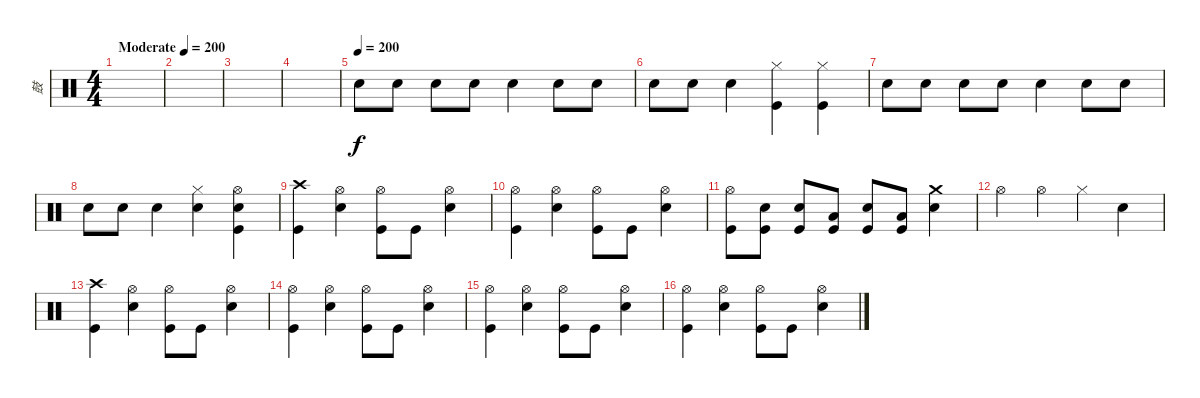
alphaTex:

\track ("鼓" "鼓") {instrument percussion}
\staff {score}
\articulation defaults
\ts (4 4)
\tempo (200 "Moderate")
\tempo 150
\tempo (200 "Moderate")
\clef neutral
\ks c
|
|
|
|
\tempo (200)
"Snare (hit) 2".8 "Snare (hit) 2".8 "Snare (hit) 2".8 "Snare (hit) 2".8 "Snare (hit) 2".4 "Snare (hit) 2".8 "Snare (hit) 2".8 |
"Snare (hit) 2".8 "Snare (hit) 2".8 "Snare (hit) 2".4 ("Hi-Hat (closed)" "Kick (hit)").4 ("Hi-Hat (closed)" "Kick (hit)").4 |
"Snare (hit) 2".8 "Snare (hit) 2".8 "Snare (hit) 2".8 "Snare (hit) 2".8 "Snare (hit) 2".4 "Snare (hit) 2".8 "Snare (hit) 2".8 |
"Snare (hit) 2".8 "Snare (hit) 2".8 "Snare (hit) 2".4 ("Hi-Hat (closed)" "Snare (hit) 2").4 ("Hi-Hat (open)" "Snare (hit) 2" "Kick (hit)").4 |
("Crash high (hit)" "Kick (hit)").4 ("Hi-Hat (open)" "Snare (hit) 2").4 ("Hi-Hat (open)" "Kick (hit)").8 "Kick (hit)".8 ("Hi-Hat (open)" "Snare (hit) 2").4 |
("Hi-Hat (open)" "Kick (hit)").4 ("Hi-Hat (open)" "Snare (hit) 2").4 ("Hi-Hat (open)" "Kick (hit)").8 "Kick (hit)".8 ("Hi-Hat (open)" "Snare (hit) 2").4 |
("Hi-Hat (open)" "Kick (hit)").8 ("Snare (hit) 2" "Kick (hit)").8 ("Snare (hit) 2" "Kick (hit)").8 ("Low Floor Tom (hit)" "Kick (hit)").8 ("Snare (hit) 2" "Kick (hit)").8 ("Low Tom (hit)" "Kick (hit)").8 ("Crash medium (hit)" "Snare (hit) 2").4 |
"Hi-Hat (open)".4 "Hi-Hat (open)".4 "Hi-Hat (closed)".4 "Snare (hit) 2".4 |
("Crash high (hit)" "Kick (hit)").4 ("Hi-Hat (open)" "Snare (hit) 2").4 ("Hi-Hat (open)" "Kick (hit)").8 "Kick (hit)".8 ("Hi-Hat (open)" "Snare (hit) 2").4 |
("Hi-Hat (open)" "Kick (hit)").4 ("Hi-Hat (open)" "Snare (hit) 2").4 ("Hi-Hat (open)" "Kick (hit)").8 "Kick (hit)".8 ("Hi-Hat (open)" "Snare (hit) 2").4 |
("Hi-Hat (open)" "Kick (hit)").4 ("Hi-Hat (open)" "Snare (hit) 2").4 ("Hi-Hat (open)" "Kick (hit)").8 "Kick (hit)".8 ("Hi-Hat (open)" "Snare (hit) 2").4 |
("Hi-Hat (open)" "Kick (hit)").4 ("Hi-Hat (open)" "Snare (hit) 2").4 ("Hi-Hat (open)" "Kick (hit)").8 "Kick (hit)".8 ("Hi-Hat (open)" "Snare (hit) 2").4
